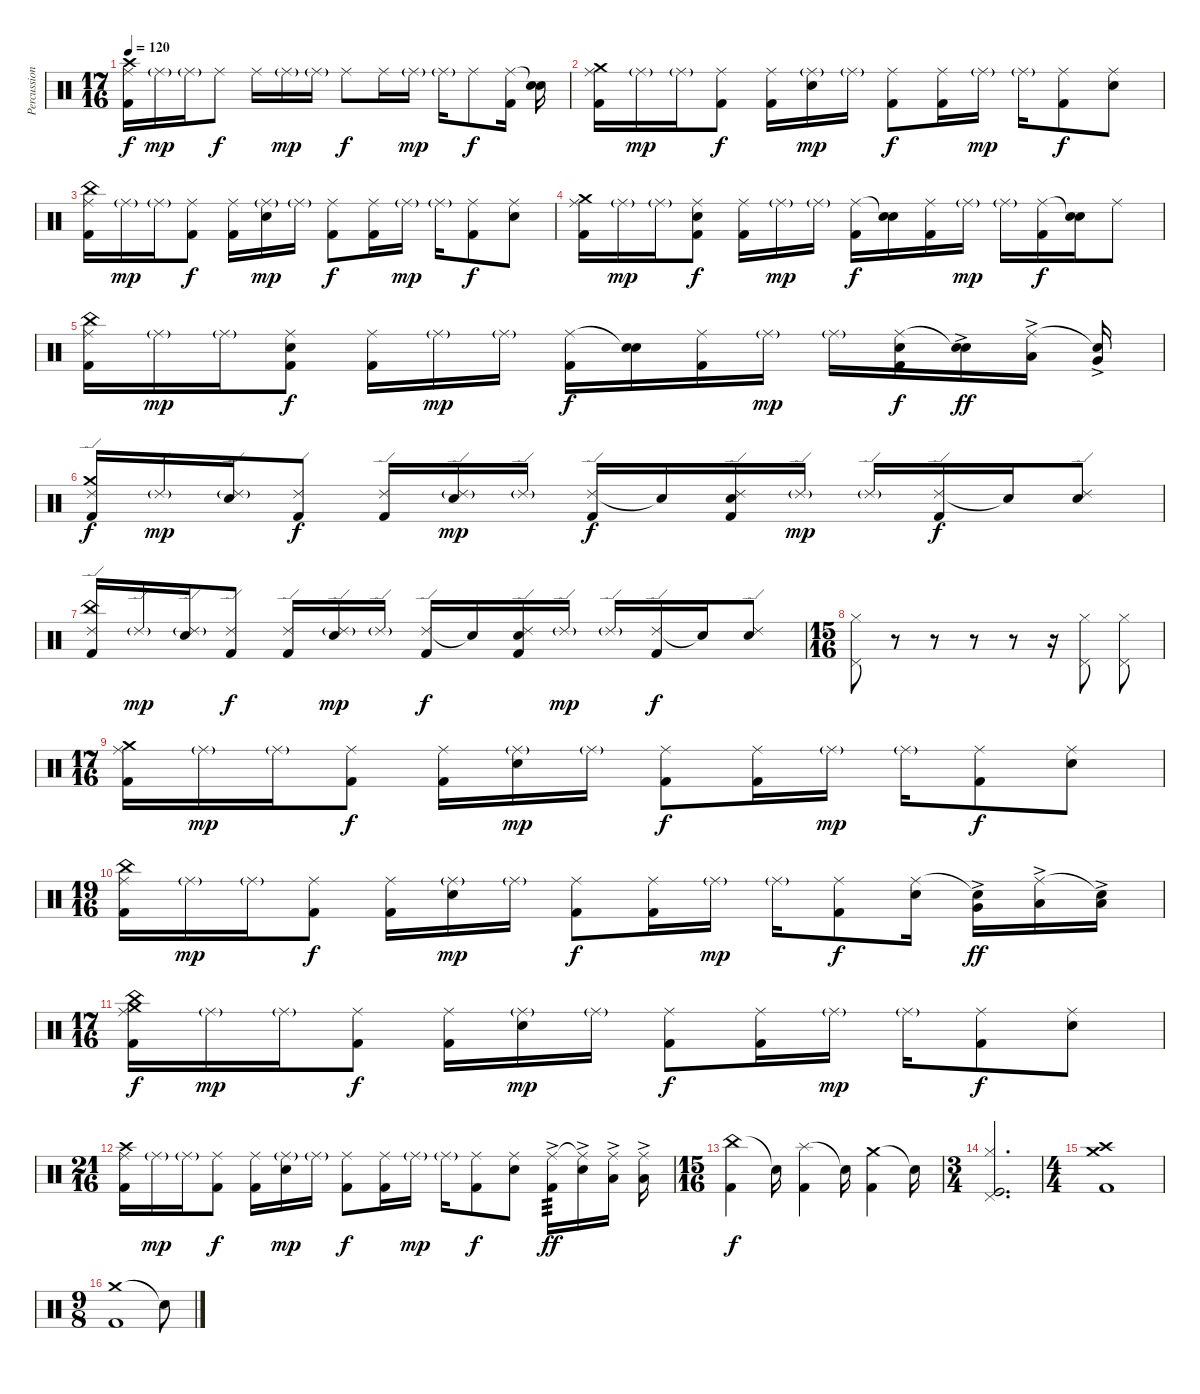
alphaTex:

\track ("Percussion" "Percussion") {instrument percussion}
\staff {score}
\articulation defaults
\ts (17 16)
\tempo 120
\clef neutral
\ks c
("Crash high (hit)" "Ride (middle)" "Kick (hit) 2").16{dy f} "Ride (middle)"{g}.16{dy mp} "Ride (middle)"{g}.16 "Ride (middle)".8{dy f} "Ride (middle)".16 "Ride (middle)"{g}.16{dy mp} "Ride (middle)"{g}.16 "Ride (middle)".8{dy f} "Ride (middle)".16 "Ride (middle)"{g}.16{dy mp} "Ride (middle)"{g}.16 "Ride (middle)".8{dy f} ("Ride (middle)" "Kick (hit) 2").16 ("Snare (hit)"{t} "Snare (hit) 2").16 |
("Crash medium (hit)" "Ride (middle)" "Kick (hit) 2").16 "Ride (middle)"{g}.16{dy mp} "Ride (middle)"{g}.16 ("Ride (middle)" "Kick (hit) 2").8{dy f} ("Ride (middle)" "Kick (hit) 2").16 ("Ride (middle)"{g} "Snare (hit) 2").16{dy mp} "Ride (middle)"{g}.16 ("Ride (middle)" "Kick (hit) 2").8{dy f} ("Ride (middle)" "Kick (hit) 2").16 "Ride (middle)"{g}.16{dy mp} "Ride (middle)"{g}.16 ("Ride (middle)" "Kick (hit) 2").8{dy f} ("Ride (middle)" "Snare (hit) 2").8 |
("China (hit)" "Ride (middle)" "Kick (hit) 2").16 "Ride (middle)"{g}.16{dy mp} "Ride (middle)"{g}.16 ("Ride (middle)" "Kick (hit) 2").8{dy f} ("Ride (middle)" "Kick (hit) 2").16 ("Ride (middle)"{g} "Snare (hit) 2").16{dy mp} "Ride (middle)"{g}.16 ("Ride (middle)" "Kick (hit) 2").8{dy f} ("Ride (middle)" "Kick (hit) 2").16 "Ride (middle)"{g}.16{dy mp} "Ride (middle)"{g}.16 ("Ride (middle)" "Kick (hit) 2").8{dy f} ("Ride (middle)" "Snare (hit) 2").8 |
("Crash medium (hit)" "Ride (middle)" "Kick (hit) 2").16 "Ride (middle)"{g}.16{dy mp} "Ride (middle)"{g}.16 ("Ride (middle)" "Snare (hit) 2" "Kick (hit) 2").8{dy f} ("Ride (middle)" "Kick (hit) 2").16 "Ride (middle)"{g}.16{dy mp} "Ride (middle)"{g}.16 ("Ride (middle)" "Kick (hit) 2").16{dy f} ("Snare (hit)"{t} "Snare (hit) 2").16 ("Ride (middle)" "Kick (hit) 2").16 "Ride (middle)"{g}.16{dy mp} "Ride (middle)"{g}.16 ("Ride (middle)" "Kick (hit) 2").16{dy f} ("Snare (hit)"{t} "Snare (hit) 2").16 "Ride (middle)".8 |
("China (hit)" "Ride (middle)" "Kick (hit) 2").16 "Ride (middle)"{g}.16{dy mp} "Ride (middle)"{g}.16 ("Ride (middle)" "Snare (hit) 2" "Kick (hit) 2").8{dy f} ("Ride (middle)" "Kick (hit) 2").16 "Ride (middle)"{g}.16{dy mp} "Ride (middle)"{g}.16 ("Ride (middle)" "Kick (hit) 2").16{dy f} ("Snare (hit)"{t} "Snare (hit) 2").16 ("Ride (middle)" "Kick (hit) 2").16 "Ride (middle)"{g}.16{dy mp} "Ride (middle)"{g}.16 ("Ride (middle)" "Snare (hit) 2" "Kick (hit) 2").16{dy f} ("Snare (hit)"{t} "Snare (hit) 2"{ac}).16{dy ff} ("Ride (middle)" "Low Floor Tom (hit)"{ac}).16 ("Snare (hit)"{t} "Very Low Tom (hit)"{ac}).16 |
("Crash medium (hit)" "Ride (edge) 2" "Kick (hit) 2").16{dy f} "Ride (edge) 2"{g}.16{dy mp} ("Ride (edge) 2"{g} "Snare (hit) 2").16 ("Ride (edge) 2" "Kick (hit) 2").8{dy f} ("Ride (edge) 2" "Kick (hit) 2").16 ("Ride (edge) 2"{g} "Snare (hit) 2").16{dy mp} "Ride (edge) 2"{g}.16 ("Ride (edge) 2" "Kick (hit) 2").16{dy f} "Snare (hit)"{t}.16 ("Ride (edge) 2" "Snare (hit) 2" "Kick (hit) 2").16 "Ride (edge) 2"{g}.16{dy mp} "Ride (edge) 2"{g}.16 ("Ride (edge) 2" "Kick (hit) 2").16{dy f} "Snare (hit)"{t}.16 ("Ride (edge) 2" "Snare (hit) 2").8 |
("China (hit)" "Ride (edge) 2" "Kick (hit) 2").16 "Ride (edge) 2"{g}.16{dy mp} ("Ride (edge) 2"{g} "Snare (hit) 2").16 ("Ride (edge) 2" "Kick (hit) 2").8{dy f} ("Ride (edge) 2" "Kick (hit) 2").16 ("Ride (edge) 2"{g} "Snare (hit) 2").16{dy mp} "Ride (edge) 2"{g}.16 ("Ride (edge) 2" "Kick (hit) 2").16{dy f} "Snare (hit)"{t}.16 ("Ride (edge) 2" "Snare (hit) 2" "Kick (hit) 2").16 "Ride (edge) 2"{g}.16{dy mp} "Ride (edge) 2"{g}.16 ("Ride (edge) 2" "Kick (hit) 2").16{dy f} "Snare (hit)"{t}.16 ("Ride (edge) 2" "Snare (hit) 2").8 |
\ts (15 16)
("Pedal Hi-Hat (hit)" "Hi-Hat (closed)").8 r.8 r.8 r.8 r.8 r.16 ("Pedal Hi-Hat (hit)" "Hi-Hat (closed)").8 ("Pedal Hi-Hat (hit)" "Hi-Hat (closed)").8 |
\ts (17 16)
("Crash medium (hit)" "Ride (middle)" "Kick (hit) 2").16 "Ride (middle)"{g}.16{dy mp} "Ride (middle)"{g}.16 ("Ride (middle)" "Kick (hit) 2").8{dy f} ("Ride (middle)" "Kick (hit) 2").16 ("Ride (middle)"{g} "Snare (hit) 2").16{dy mp} "Ride (middle)"{g}.16 ("Ride (middle)" "Kick (hit) 2").8{dy f} ("Ride (middle)" "Kick (hit) 2").16 "Ride (middle)"{g}.16{dy mp} "Ride (middle)"{g}.16 ("Ride (middle)" "Kick (hit) 2").8{dy f} ("Ride (middle)" "Snare (hit) 2").8 |
\ts (19 16)
("China (hit)" "Ride (middle)" "Kick (hit) 2").16 "Ride (middle)"{g}.16{dy mp} "Ride (middle)"{g}.16 ("Ride (middle)" "Kick (hit) 2").8{dy f} ("Ride (middle)" "Kick (hit) 2").16 ("Ride (middle)"{g} "Snare (hit) 2").16{dy mp} "Ride (middle)"{g}.16 ("Ride (middle)" "Kick (hit) 2").8{dy f} ("Ride (middle)" "Kick (hit) 2").16 "Ride (middle)"{g}.16{dy mp} "Ride (middle)"{g}.16 ("Ride (middle)" "Kick (hit) 2").8{dy f} ("Ride (middle)" "Snare (hit) 2").16 ("Snare (hit)"{t} "Very Low Tom (hit)"{ac}).16{dy ff} ("Ride (middle)" "Low Floor Tom (hit)"{ac}).16 ("Snare (hit)"{t} "Low Tom (hit)"{ac}).16 |
\ts (17 16)
("Crash medium (hit)" "Ride (middle)" "China (hit)" "Kick (hit) 2").16{dy f} "Ride (middle)"{g}.16{dy mp} "Ride (middle)"{g}.16 ("Ride (middle)" "Kick (hit) 2").8{dy f} ("Ride (middle)" "Kick (hit) 2").16 ("Ride (middle)"{g} "Snare (hit) 2").16{dy mp} "Ride (middle)"{g}.16 ("Ride (middle)" "Kick (hit) 2").8{dy f} ("Ride (middle)" "Kick (hit) 2").16 "Ride (middle)"{g}.16{dy mp} "Ride (middle)"{g}.16 ("Ride (middle)" "Kick (hit) 2").8{dy f} ("Ride (middle)" "Snare (hit) 2").8 |
\ts (21 16)
("Crash high (hit)" "Ride (middle)" "Kick (hit) 2").16 "Ride (middle)"{g}.16{dy mp} "Ride (middle)"{g}.16 ("Ride (middle)" "Kick (hit) 2").8{dy f} ("Ride (middle)" "Kick (hit) 2").16 ("Ride (middle)"{g} "Snare (hit) 2").16{dy mp} "Ride (middle)"{g}.16 ("Ride (middle)" "Kick (hit) 2").8{dy f} ("Ride (middle)" "Kick (hit) 2").16 "Ride (middle)"{g}.16{dy mp} "Ride (middle)"{g}.16 ("Ride (middle)" "Kick (hit) 2").8{dy f} ("Ride (middle)" "Snare (hit) 2").8 ("Ride (middle)" "Kick (hit) 2"{ac}).16{tp 3 dy ff} ("Ride (middle)"{t} "Snare (hit) 2"{ac}).16 ("Ride (middle)" "Low Floor Tom (hit)"{ac}).16 ("Ride (middle)" "Low Tom (hit)"{ac}).16 |
\ts (15 16)
("China (hit)" "Kick (hit) 2").4{dy f} "Snare (hit)"{t}.16 ("Splash (hit)" "Kick (hit) 2").4 "Snare (hit)"{t}.16 ("Crash medium (hit)" "Kick (hit) 2").4 "Snare (hit)"{t}.16 |
\ts (3 4)
("Hi-Hat (closed)" "Pedal Hi-Hat (hit)" "Kick (hit)").2{d} |
\ts (4 4)
("Crash medium (hit)" "Crash high (hit)" "Kick (hit) 2").1 |
\ts (9 8)
("Crash medium (hit)" "Kick (hit) 2").1 "Snare (hit)"{t}.8
